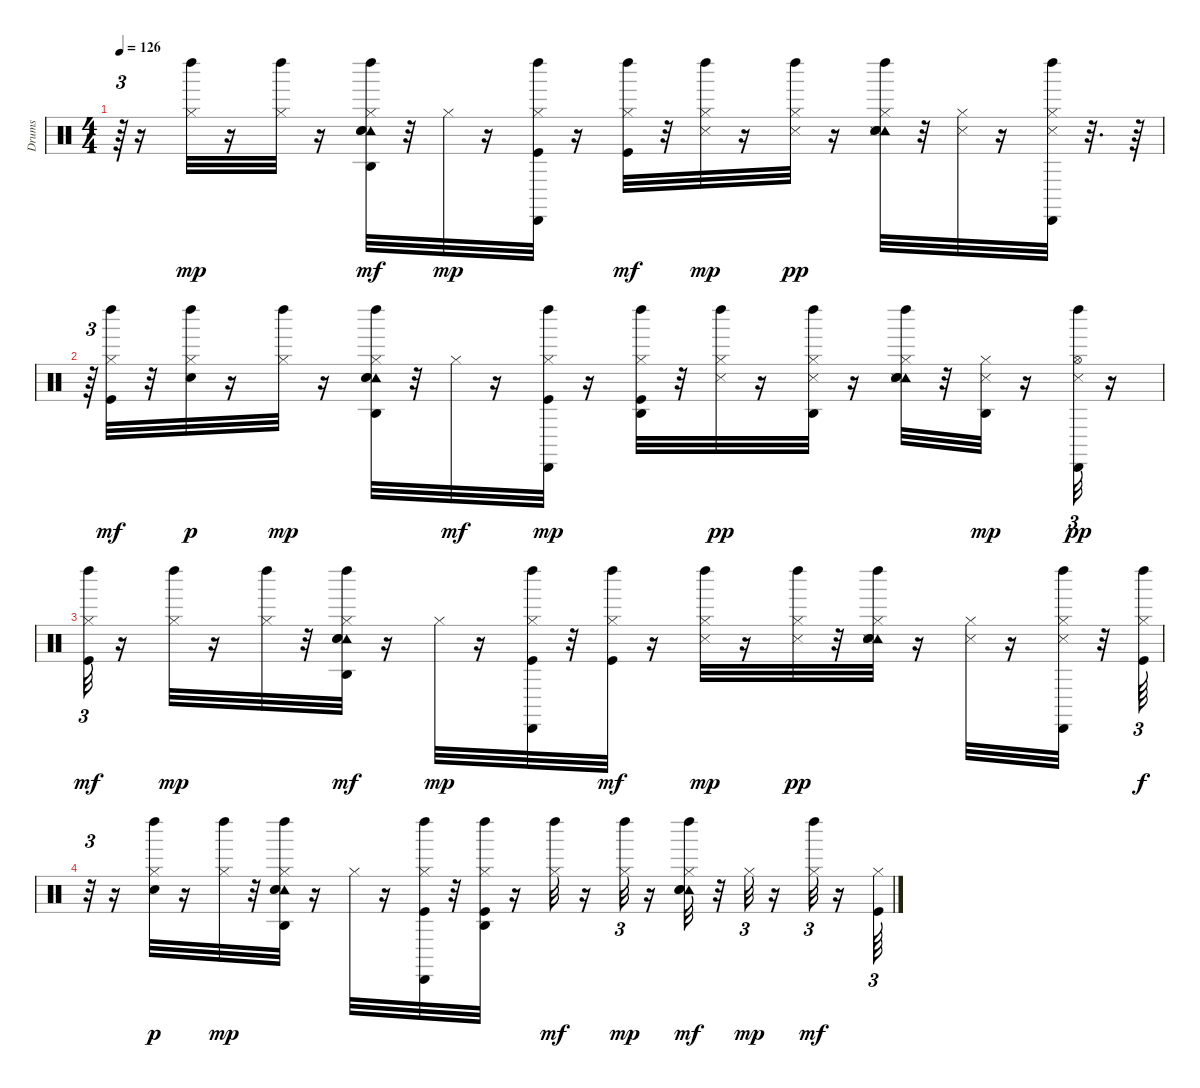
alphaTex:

\track ("Drums" "Drums") {instrument percussion}
\staff {score}
\articulation defaults
\ts (4 4)
\tempo 126
\clef neutral
\ks c
r.64{tu (3 2) dy f} r.16 ("Hi-Hat (closed)" "Left Maraca (hit)").32{dy mp} r.16 ("Hi-Hat (closed)" "Left Maraca (hit)").32 r.16 ("Hi-Hat (closed)" "Tambourine (hit)" "Agogo high (hit)" "Snare (hit) 2" "Left Maraca (hit)" "Hand Clap (hit)").32{dy mf} r.32 "Hi-Hat (closed)".32{dy mp} r.16 ("Cabasa (hit)" "Kick (hit)" "Hi-Hat (closed)" "Left Maraca (hit)").32 r.16 ("Hi-Hat (closed)" "Kick (hit)" "Left Maraca (hit)").32{dy mf} r.32 ("Hi-Hat (closed)" "Snare (side stick) 3" "Left Maraca (hit)").32{dy mp} r.16 ("Hi-Hat (closed)" "Left Maraca (hit)" "Snare (side stick) 3").32{dy pp} r.16 ("Hi-Hat (closed)" "Tambourine (hit)" "Hand Clap (hit)" "Snare (hit) 2" "Snare (side stick) 3" "Left Maraca (hit)").32 r.32 ("Hi-Hat (closed)" "Snare (side stick) 3").32 r.16 ("Cabasa (hit)" "Hi-Hat (closed)" "Snare (side stick) 3" "Left Maraca (hit)").32 r.32{d} r.64 |
r.64{tu (3 2)} ("Left Maraca (hit)" "Kick (hit)" "Hi-Hat (closed)").32{dy mf} r.32 ("Left Maraca (hit)" "Hi-Hat (closed)" "Electric Snare (hit)").32{dy p} r.16 ("Left Maraca (hit)" "Hi-Hat (closed)").32{dy mp} r.16 ("Left Maraca (hit)" "Tambourine (hit)" "Snare (hit) 2" "Hi-Hat (closed)" "Agogo high (hit)" "Hand Clap (hit)").32 r.32 "Hi-Hat (closed)".32{dy mf} r.16 ("Kick (hit)" "Hi-Hat (closed)" "Left Maraca (hit)" "Cabasa (hit)").32{dy mp} r.16 ("Kick (hit)" "Hi-Hat (closed)" "Left Maraca (hit)" "Agogo high (hit)").32 r.32 ("Hi-Hat (closed)" "Left Maraca (hit)" "Snare (side stick) 3").32{dy pp} r.16 ("Hi-Hat (closed)" "Left Maraca (hit)" "Agogo high (hit)" "Snare (side stick) 3").32 r.16 ("Hi-Hat (closed)" "Tambourine (hit)" "Hand Clap (hit)" "Snare (hit) 2" "Snare (side stick) 3" "Left Maraca (hit)").32 r.32 ("Hi-Hat (closed)" "Snare (side stick) 3" "Agogo high (hit)").32{dy mp} r.16 ("Hi-Hat (open)" "Cabasa (hit)" "Snare (side stick) 3" "Left Maraca (hit)").32{tu (3 2) dy pp} r.16 |
("Kick (hit)" "Hi-Hat (closed)" "Left Maraca (hit)").32{tu (3 2) dy mf} r.16 ("Hi-Hat (closed)" "Left Maraca (hit)").32{dy mp} r.16 ("Hi-Hat (closed)" "Left Maraca (hit)").32 r.32 ("Hi-Hat (closed)" "Tambourine (hit)" "Agogo high (hit)" "Snare (hit) 2" "Left Maraca (hit)" "Hand Clap (hit)").32{dy mf} r.16 "Hi-Hat (closed)".32{dy mp} r.16 ("Cabasa (hit)" "Kick (hit)" "Hi-Hat (closed)" "Left Maraca (hit)").32 r.32 ("Hi-Hat (closed)" "Kick (hit)" "Left Maraca (hit)").32{dy mf} r.16 ("Hi-Hat (closed)" "Snare (side stick) 3" "Left Maraca (hit)").32{dy mp} r.16 ("Hi-Hat (closed)" "Left Maraca (hit)" "Snare (side stick) 3").32{dy pp} r.32 ("Hi-Hat (closed)" "Tambourine (hit)" "Hand Clap (hit)" "Snare (hit) 2" "Snare (side stick) 3" "Left Maraca (hit)").32 r.16 ("Hi-Hat (closed)" "Snare (side stick) 3").32 r.16 ("Cabasa (hit)" "Hi-Hat (closed)" "Snare (side stick) 3" "Left Maraca (hit)").32 r.32 ("Left Maraca (hit)" "Kick (hit)" "Hi-Hat (closed)").64{tu (3 2) dy f} |
r.32{tu (3 2)} r.16 ("Left Maraca (hit)" "Hi-Hat (closed)" "Electric Snare (hit)").32{dy p} r.16 ("Left Maraca (hit)" "Hi-Hat (closed)").32{dy mp} r.32 ("Left Maraca (hit)" "Tambourine (hit)" "Snare (hit) 2" "Hi-Hat (closed)" "Agogo high (hit)" "Hand Clap (hit)").32 r.16 "Hi-Hat (closed)".32 r.16 ("Kick (hit)" "Hi-Hat (closed)" "Left Maraca (hit)" "Cabasa (hit)").32 r.32 ("Hi-Hat (closed)" "Kick (hit)" "Left Maraca (hit)" "Agogo high (hit)").32 r.16 ("Hi-Hat (closed)" "Left Maraca (hit)").32{dy mf} r.16 ("Hi-Hat (closed)" "Left Maraca (hit)").32{tu (3 2) dy mp} r.16 ("Hi-Hat (closed)" "Tambourine (hit)" "Hand Clap (hit)" "Snare (hit) 2" "Left Maraca (hit)").32{dy mf} r.32 "Hi-Hat (closed)".32{tu (3 2) dy mp} r.16 ("Hi-Hat (closed)" "Left Maraca (hit)").32{tu (3 2) dy mf} r.16 ("Kick (hit)" "Hi-Hat (closed)").64{tu (3 2)}
